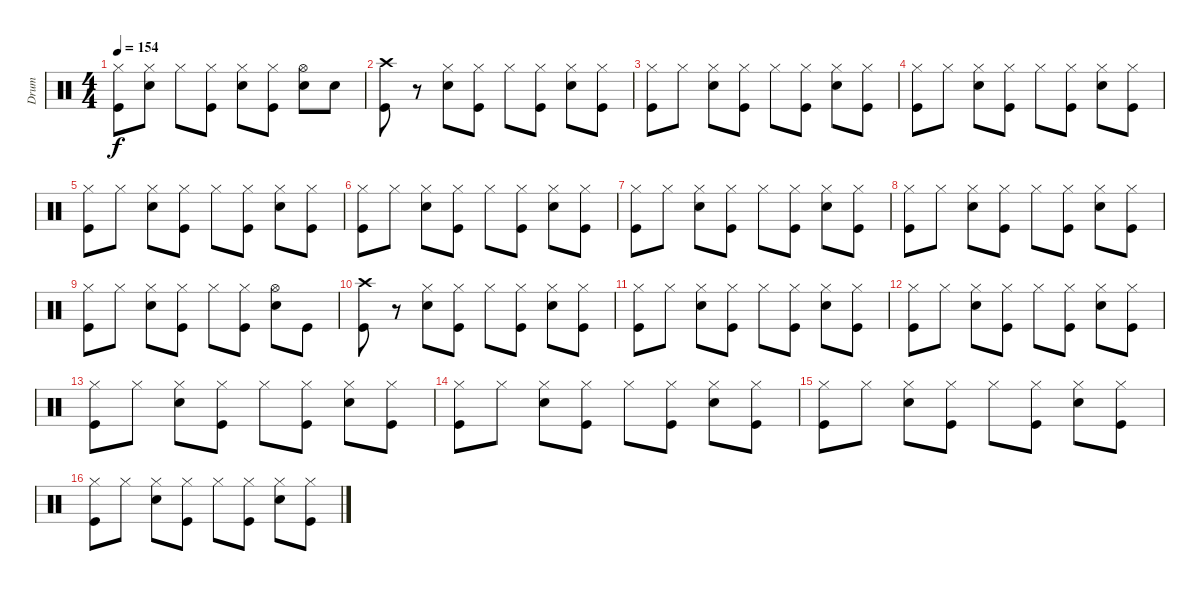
\track ("Drum" "Drum") {instrument percussion}
\staff {score}
\articulation defaults
\ts (4 4)
\tempo 154
\clef neutral
\ks c
("Kick (hit)" "Hi-Hat (closed)").8{dy f} ("Snare (hit) 2" "Hi-Hat (closed)").8 "Hi-Hat (closed)".8 ("Kick (hit)" "Hi-Hat (closed)").8 ("Snare (hit) 2" "Hi-Hat (closed)").8 ("Kick (hit)" "Hi-Hat (closed)").8 ("Snare (hit) 2" "Hi-Hat (open)").8 "Snare (hit) 2".8 |
("Kick (hit)" "Crash high (hit)").8 r.8 ("Snare (hit) 2" "Hi-Hat (closed)").8 ("Kick (hit)" "Hi-Hat (closed)").8 "Hi-Hat (closed)".8 ("Kick (hit)" "Hi-Hat (closed)").8 ("Snare (hit) 2" "Hi-Hat (closed)").8 ("Kick (hit)" "Hi-Hat (closed)").8 |
("Kick (hit)" "Hi-Hat (closed)").8 "Hi-Hat (closed)".8 ("Snare (hit) 2" "Hi-Hat (closed)").8 ("Kick (hit)" "Hi-Hat (closed)").8 "Hi-Hat (closed)".8 ("Kick (hit)" "Hi-Hat (closed)").8 ("Snare (hit) 2" "Hi-Hat (closed)").8 ("Kick (hit)" "Hi-Hat (closed)").8 |
("Kick (hit)" "Hi-Hat (closed)").8 "Hi-Hat (closed)".8 ("Snare (hit) 2" "Hi-Hat (closed)").8 ("Kick (hit)" "Hi-Hat (closed)").8 "Hi-Hat (closed)".8 ("Kick (hit)" "Hi-Hat (closed)").8 ("Snare (hit) 2" "Hi-Hat (closed)").8 ("Kick (hit)" "Hi-Hat (closed)").8 |
("Kick (hit)" "Hi-Hat (closed)").8 "Hi-Hat (closed)".8 ("Snare (hit) 2" "Hi-Hat (closed)").8 ("Kick (hit)" "Hi-Hat (closed)").8 "Hi-Hat (closed)".8 ("Kick (hit)" "Hi-Hat (closed)").8 ("Snare (hit) 2" "Hi-Hat (closed)").8 ("Kick (hit)" "Hi-Hat (closed)").8 |
("Kick (hit)" "Hi-Hat (closed)").8 "Hi-Hat (closed)".8 ("Snare (hit) 2" "Hi-Hat (closed)").8 ("Kick (hit)" "Hi-Hat (closed)").8 "Hi-Hat (closed)".8 ("Kick (hit)" "Hi-Hat (closed)").8 ("Snare (hit) 2" "Hi-Hat (closed)").8 ("Kick (hit)" "Hi-Hat (closed)").8 |
("Kick (hit)" "Hi-Hat (closed)").8 "Hi-Hat (closed)".8 ("Snare (hit) 2" "Hi-Hat (closed)").8 ("Kick (hit)" "Hi-Hat (closed)").8 "Hi-Hat (closed)".8 ("Kick (hit)" "Hi-Hat (closed)").8 ("Snare (hit) 2" "Hi-Hat (closed)").8 ("Kick (hit)" "Hi-Hat (closed)").8 |
("Kick (hit)" "Hi-Hat (closed)").8 "Hi-Hat (closed)".8 ("Snare (hit) 2" "Hi-Hat (closed)").8 ("Kick (hit)" "Hi-Hat (closed)").8 "Hi-Hat (closed)".8 ("Kick (hit)" "Hi-Hat (closed)").8 ("Snare (hit) 2" "Hi-Hat (closed)").8 ("Kick (hit)" "Hi-Hat (closed)").8 |
("Kick (hit)" "Hi-Hat (closed)").8 "Hi-Hat (closed)".8 ("Snare (hit) 2" "Hi-Hat (closed)").8 ("Kick (hit)" "Hi-Hat (closed)").8 "Hi-Hat (closed)".8 ("Kick (hit)" "Hi-Hat (closed)").8 ("Snare (hit) 2" "Hi-Hat (open)").8 "Kick (hit)".8 |
("Kick (hit)" "Crash high (hit)").8 r.8 ("Snare (hit) 2" "Hi-Hat (closed)").8 ("Kick (hit)" "Hi-Hat (closed)").8 "Hi-Hat (closed)".8 ("Kick (hit)" "Hi-Hat (closed)").8 ("Snare (hit) 2" "Hi-Hat (closed)").8 ("Kick (hit)" "Hi-Hat (closed)").8 |
("Kick (hit)" "Hi-Hat (closed)").8 "Hi-Hat (closed)".8 ("Snare (hit) 2" "Hi-Hat (closed)").8 ("Kick (hit)" "Hi-Hat (closed)").8 "Hi-Hat (closed)".8 ("Kick (hit)" "Hi-Hat (closed)").8 ("Snare (hit) 2" "Hi-Hat (closed)").8 ("Kick (hit)" "Hi-Hat (closed)").8 |
("Kick (hit)" "Hi-Hat (closed)").8 "Hi-Hat (closed)".8 ("Snare (hit) 2" "Hi-Hat (closed)").8 ("Kick (hit)" "Hi-Hat (closed)").8 "Hi-Hat (closed)".8 ("Kick (hit)" "Hi-Hat (closed)").8 ("Snare (hit) 2" "Hi-Hat (closed)").8 ("Kick (hit)" "Hi-Hat (closed)").8 |
("Kick (hit)" "Hi-Hat (closed)").8 "Hi-Hat (closed)".8 ("Snare (hit) 2" "Hi-Hat (closed)").8 ("Kick (hit)" "Hi-Hat (closed)").8 "Hi-Hat (closed)".8 ("Kick (hit)" "Hi-Hat (closed)").8 ("Snare (hit) 2" "Hi-Hat (closed)").8 ("Kick (hit)" "Hi-Hat (closed)").8 |
("Kick (hit)" "Hi-Hat (closed)").8 "Hi-Hat (closed)".8 ("Snare (hit) 2" "Hi-Hat (closed)").8 ("Kick (hit)" "Hi-Hat (closed)").8 "Hi-Hat (closed)".8 ("Kick (hit)" "Hi-Hat (closed)").8 ("Snare (hit) 2" "Hi-Hat (closed)").8 ("Kick (hit)" "Hi-Hat (closed)").8 |
("Kick (hit)" "Hi-Hat (closed)").8 "Hi-Hat (closed)".8 ("Snare (hit) 2" "Hi-Hat (closed)").8 ("Kick (hit)" "Hi-Hat (closed)").8 "Hi-Hat (closed)".8 ("Kick (hit)" "Hi-Hat (closed)").8 ("Snare (hit) 2" "Hi-Hat (closed)").8 ("Kick (hit)" "Hi-Hat (closed)").8 |
("Kick (hit)" "Hi-Hat (closed)").8 "Hi-Hat (closed)".8 ("Snare (hit) 2" "Hi-Hat (closed)").8 ("Kick (hit)" "Hi-Hat (closed)").8 "Hi-Hat (closed)".8 ("Kick (hit)" "Hi-Hat (closed)").8 ("Snare (hit) 2" "Hi-Hat (closed)").8 ("Kick (hit)" "Hi-Hat (closed)").8
